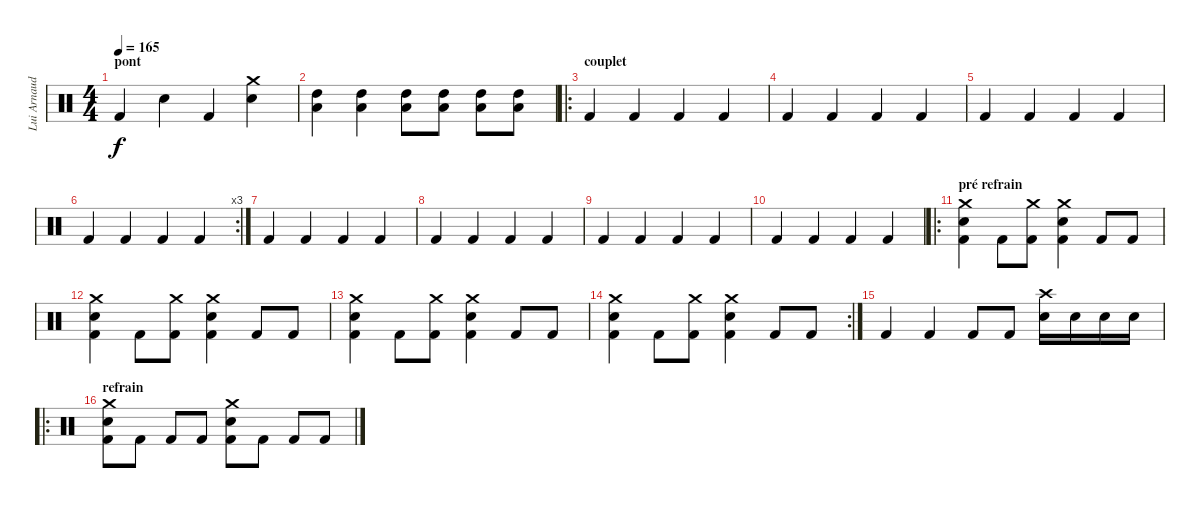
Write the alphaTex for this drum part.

\track ("Lui Arnaudin" "Lui Arnaud") {instrument percussion}
\staff {score}
\articulation defaults
\ts (4 4)
\section ("" "pont")
\tempo 165
\clef neutral
\ks c "Kick (hit) 2".4{dy f} "Electric Snare (hit)".4 "Kick (hit) 2".4
("Crash medium (hit)" "Electric Snare (hit)").4 |
("High Tom (hit)" "Low Tom (hit)").4 ("High Tom (hit)" "Low Tom (hit)").4 ("High Tom (hit)" "Low Tom (hit)").8 ("High Tom (hit)" "Low Tom (hit)").8 ("High Tom (hit)" "Low Tom (hit)").8 ("High Tom (hit)" "Low Tom (hit)").8 |
\ro
\section ("" "couplet")
"Kick (hit) 2".4 "Kick (hit) 2".4 "Kick (hit) 2".4 "Kick (hit) 2".4 |
"Kick (hit) 2".4 "Kick (hit) 2".4 "Kick (hit) 2".4 "Kick (hit) 2".4 |
"Kick (hit) 2".4 "Kick (hit) 2".4 "Kick (hit) 2".4 "Kick (hit) 2".4 |
\rc 3 "Kick (hit) 2".4 "Kick (hit) 2".4 "Kick (hit) 2".4 "Kick (hit) 2".4
|
"Kick (hit) 2".4 "Kick (hit) 2".4 "Kick (hit) 2".4 "Kick (hit) 2".4 |
"Kick (hit) 2".4 "Kick (hit) 2".4 "Kick (hit) 2".4 "Kick (hit) 2".4 |
"Kick (hit) 2".4 "Kick (hit) 2".4 "Kick (hit) 2".4 "Kick (hit) 2".4 |
"Kick (hit) 2".4 "Kick (hit) 2".4 "Kick (hit) 2".4 "Kick (hit) 2".4 |
\ro
\section ("" "pré refrain")
("Kick (hit) 2" "Crash medium (hit)" "Electric Snare (hit)").4 "Kick (hit) 2".8 ("Crash medium (hit)" "Kick (hit) 2").8 ("Kick (hit) 2" "Crash medium (hit)" "Electric Snare (hit)").4 "Kick (hit) 2".8 "Kick (hit) 2".8 |
("Kick (hit) 2" "Crash medium (hit)" "Electric Snare (hit)").4 "Kick (hit) 2".8 ("Crash medium (hit)" "Kick (hit) 2").8 ("Kick (hit) 2" "Crash medium (hit)" "Electric Snare (hit)").4 "Kick (hit) 2".8 "Kick (hit) 2".8 |
("Kick (hit) 2" "Crash medium (hit)" "Electric Snare (hit)").4 "Kick (hit) 2".8 ("Crash medium (hit)" "Kick (hit) 2").8 ("Kick (hit) 2" "Crash medium (hit)" "Electric Snare (hit)").4 "Kick (hit) 2".8 "Kick (hit) 2".8 |
\rc 2
("Kick (hit) 2" "Crash medium (hit)" "Electric Snare (hit)").4 "Kick (hit) 2".8 ("Crash medium (hit)" "Kick (hit) 2").8 ("Kick (hit) 2" "Crash medium (hit)" "Electric Snare (hit)").4 "Kick (hit) 2".8 "Kick (hit) 2".8 |
"Kick (hit) 2".4 "Kick (hit) 2".4 "Kick (hit) 2".8 "Kick (hit) 2".8 ("Crash high (hit)" "Snare (hit) 2").16 "Snare (hit) 2".16 "Snare (hit) 2".16 "Snare (hit) 2".16 |
\ro
\section ("" "refrain")
("Kick (hit) 2" "Crash medium (hit)" "Electric Snare (hit)").8 "Kick (hit) 2".8 "Kick (hit) 2".8 "Kick (hit) 2".8 ("Kick (hit) 2" "Crash medium (hit)" "Electric Snare (hit)").8 "Kick (hit) 2".8 "Kick (hit) 2".8 "Kick (hit) 2".8
